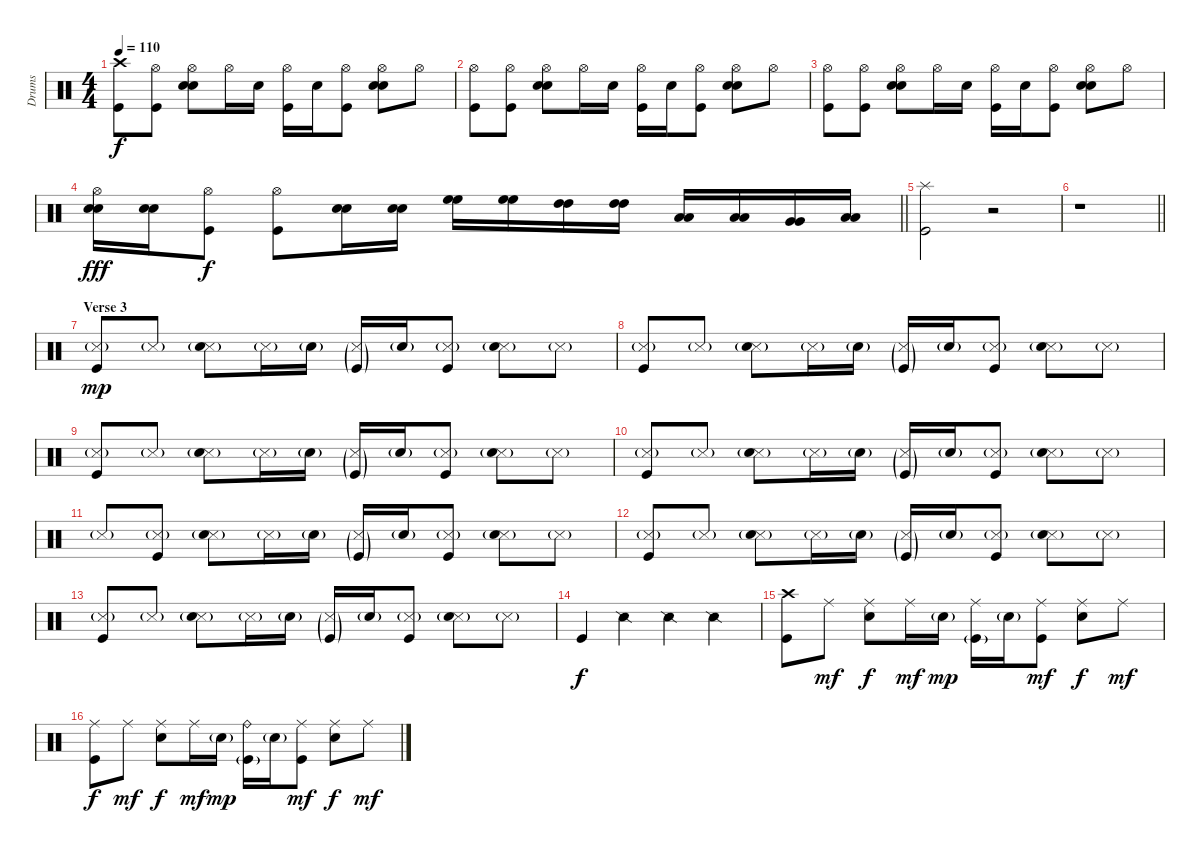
\track ("Drums" "Drums") {instrument percussion}
\staff {score}
\articulation defaults
\ts (4 4)
\tempo 110
\clef neutral
\ks c
("Crash high (hit)" "Kick (hit)").8{dy f} ("Hi-Hat (open)" "Kick (hit)").8 ("Hi-Hat (open)" "Electric Snare (hit)" "Snare (hit) 2").8 "Hi-Hat (open)".16 "Electric Snare (hit)".16 ("Hi-Hat (open)" "Kick (hit)").16 "Electric Snare (hit)".16 ("Hi-Hat (open)" "Kick (hit)").8 ("Hi-Hat (open)" "Electric Snare (hit)" "Snare (hit) 2").8 "Hi-Hat (open)".8 |
("Hi-Hat (open)" "Kick (hit)").8 ("Hi-Hat (open)" "Kick (hit)").8 ("Hi-Hat (open)" "Electric Snare (hit)" "Snare (hit) 2").8 "Hi-Hat (open)".16 "Electric Snare (hit)".16 ("Hi-Hat (open)" "Kick (hit)").16 "Electric Snare (hit)".16 ("Hi-Hat (open)" "Kick (hit)").8 ("Hi-Hat (open)" "Electric Snare (hit)" "Snare (hit) 2").8 "Hi-Hat (open)".8 |
("Hi-Hat (open)" "Kick (hit)").8 ("Hi-Hat (open)" "Kick (hit)").8 ("Hi-Hat (open)" "Electric Snare (hit)" "Snare (hit) 2").8 "Hi-Hat (open)".16 "Electric Snare (hit)".16 ("Hi-Hat (open)" "Kick (hit)").16 "Electric Snare (hit)".16 ("Hi-Hat (open)" "Kick (hit)").8 ("Hi-Hat (open)" "Electric Snare (hit)" "Snare (hit) 2").8 "Hi-Hat (open)".8 |
\barLineRight lightlight
("Hi-Hat (open)" "Snare (hit) 2" "Electric Snare (hit)").16{dy fff} ("Snare (hit) 2" "Electric Snare (hit)").16 ("Hi-Hat (open)" "Kick (hit)").8{dy f} ("Hi-Hat (open)" "Kick (hit)").8 ("Electric Snare (hit)" "Snare (hit) 2").16 ("Electric Snare (hit)" "Snare (hit) 2").16 ("High Floor Tom (hit)" "High Floor Tom (hit)").16 ("High Floor Tom (hit)" "High Floor Tom (hit)").16 ("High Tom (hit)" "High Tom (hit)").16 ("High Tom (hit)" "High Tom (hit)").16 ("Low Tom (hit)" "Low Tom (hit)").16 ("Low Tom (hit)" "Low Tom (hit)").16 ("Very Low Tom (hit)" "Very Low Tom (hit)").16 ("Low Floor Tom (hit)" "Low Floor Tom (hit)").16 |
("Splash (hit)" "Kick (hit)").2 r.2{volume 0} |
\barLineRight lightlight
r.1{volume 14} |
\section ("" "Verse 3")
("Snare (side stick) 3"{g} "Kick (hit)").8{dy mp} "Snare (side stick) 3"{g}.8 ("Snare (side stick) 3"{g} "Electric Snare (hit)").8 "Snare (side stick) 3"{g}.16 "Electric Snare (hit)"{g}.16 ("Snare (side stick) 3"{g} "Kick (hit)"{g}).16 "Electric Snare (hit)"{g}.16 ("Snare (side stick) 3"{g} "Kick (hit)").8 ("Snare (side stick) 3"{g} "Electric Snare (hit)").8 "Snare (side stick) 3"{g}.8 |
("Snare (side stick) 3"{g} "Kick (hit)").8 "Snare (side stick) 3"{g}.8 ("Snare (side stick) 3"{g} "Electric Snare (hit)").8 "Snare (side stick) 3"{g}.16 "Electric Snare (hit)"{g}.16 ("Snare (side stick) 3"{g} "Kick (hit)"{g}).16 "Electric Snare (hit)"{g}.16 ("Snare (side stick) 3"{g} "Kick (hit)").8 ("Snare (side stick) 3"{g} "Electric Snare (hit)").8 "Snare (side stick) 3"{g}.8 |
("Snare (side stick) 3"{g} "Kick (hit)").8 "Snare (side stick) 3"{g}.8 ("Snare (side stick) 3"{g} "Electric Snare (hit)").8 "Snare (side stick) 3"{g}.16 "Electric Snare (hit)"{g}.16 ("Snare (side stick) 3"{g} "Kick (hit)"{g}).16 "Electric Snare (hit)"{g}.16 ("Snare (side stick) 3"{g} "Kick (hit)").8 ("Snare (side stick) 3"{g} "Electric Snare (hit)").8 "Snare (side stick) 3"{g}.8 |
("Snare (side stick) 3"{g} "Kick (hit)").8 "Snare (side stick) 3"{g}.8 ("Snare (side stick) 3"{g} "Electric Snare (hit)").8 "Snare (side stick) 3"{g}.16 "Electric Snare (hit)"{g}.16 ("Snare (side stick) 3"{g} "Kick (hit)"{g}).16 "Electric Snare (hit)"{g}.16 ("Snare (side stick) 3"{g} "Kick (hit)").8 ("Snare (side stick) 3"{g} "Electric Snare (hit)").8 "Snare (side stick) 3"{g}.8 |
"Snare (side stick) 3"{g}.8 ("Snare (side stick) 3"{g} "Kick (hit)").8 ("Snare (side stick) 3"{g} "Electric Snare (hit)").8 "Snare (side stick) 3"{g}.16 "Electric Snare (hit)"{g}.16 ("Snare (side stick) 3"{g} "Kick (hit)"{g}).16 "Electric Snare (hit)"{g}.16 ("Snare (side stick) 3"{g} "Kick (hit)").8 ("Snare (side stick) 3"{g} "Electric Snare (hit)").8 "Snare (side stick) 3"{g}.8 |
("Snare (side stick) 3"{g} "Kick (hit)").8 "Snare (side stick) 3"{g}.8 ("Snare (side stick) 3"{g} "Electric Snare (hit)").8 "Snare (side stick) 3"{g}.16 "Electric Snare (hit)"{g}.16 ("Snare (side stick) 3"{g} "Kick (hit)"{g}).16 "Electric Snare (hit)"{g}.16 ("Snare (side stick) 3"{g} "Kick (hit)").8 ("Snare (side stick) 3"{g} "Electric Snare (hit)").8 "Snare (side stick) 3"{g}.8 |
("Snare (side stick) 3"{g} "Kick (hit)").8 "Snare (side stick) 3"{g}.8 ("Snare (side stick) 3"{g} "Electric Snare (hit)").8 "Snare (side stick) 3"{g}.16 "Electric Snare (hit)"{g}.16 ("Snare (side stick) 3"{g} "Kick (hit)"{g}).16 "Electric Snare (hit)"{g}.16 ("Snare (side stick) 3"{g} "Kick (hit)").8 ("Snare (side stick) 3"{g} "Electric Snare (hit)").8 "Snare (side stick) 3"{g}.8 |
"Kick (hit)".4{dy f} "Snare (side stick) 2".4 "Snare (side stick) 2".4 "Snare (side stick) 2".4 |
("Crash high (hit)" "Kick (hit)").8 "Ride (middle)".8{dy mf} ("Ride (middle)" "Electric Snare (hit)").8{dy f} "Ride (middle)".16{dy mf} "Electric Snare (hit)"{g}.16{dy mp} ("Ride (middle)" "Kick (hit)"{g}).16 "Electric Snare (hit)"{g}.16 ("Ride (middle)" "Kick (hit)").8{dy mf} ("Ride (middle)" "Electric Snare (hit)").8{dy f} "Ride (middle)".8{dy mf} |
("Ride (middle)" "Kick (hit)").8{dy f} "Ride (middle)".8{dy mf} ("Ride (middle)" "Electric Snare (hit)").8{dy f} "Ride (middle)".16{dy mf} "Electric Snare (hit)"{g}.16{dy mp} ("Ride (bell)" "Kick (hit)"{g}).16 "Electric Snare (hit)"{g}.16 ("Ride (middle)" "Kick (hit)").8{dy mf} ("Ride (middle)" "Electric Snare (hit)").8{dy f} "Ride (middle)".8{dy mf}
